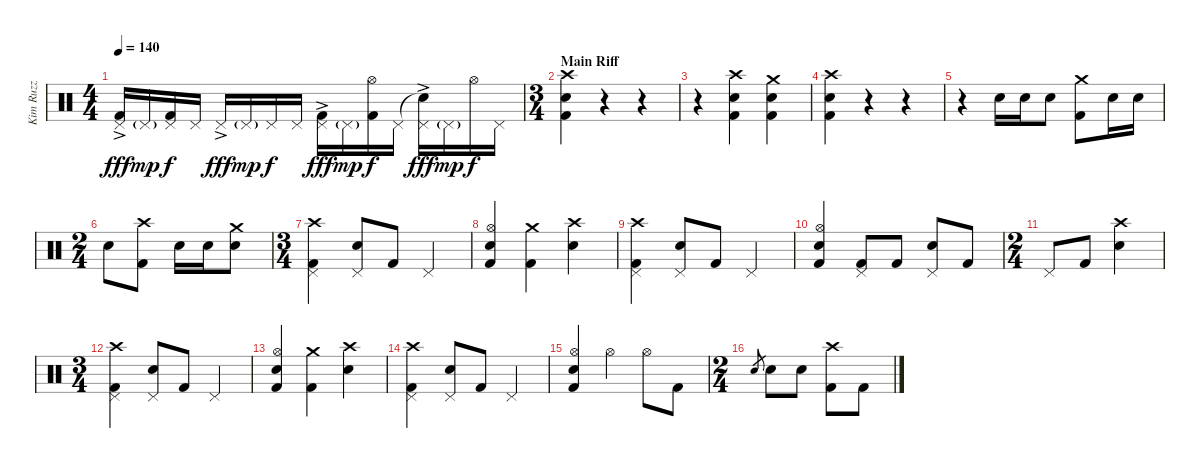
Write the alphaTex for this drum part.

\track ("Kim Ruzz" "Kim Ruzz") {instrument percussion}
\staff {score}
\articulation defaults
\ts (4 4)
\tempo 140
\clef neutral
\ks c
("Pedal Hi-Hat (hit)"{ac} "Kick (hit) 2").16{dy fff} "Pedal Hi-Hat (hit)"{g}.16{dy mp} ("Pedal Hi-Hat (hit)" "Kick (hit) 2").16{dy f} "Pedal Hi-Hat (hit)".16 "Pedal Hi-Hat (hit)"{ac}.16{dy fff} "Pedal Hi-Hat (hit)"{g}.16{dy mp} "Pedal Hi-Hat (hit)".16{dy f} "Pedal Hi-Hat (hit)".16 ("Pedal Hi-Hat (hit)"{ac} "Kick (hit) 2").16{dy fff} "Pedal Hi-Hat (hit)"{g}.16{dy mp} ("Hi-Hat (open)" "Kick (hit) 2").16{dy f} "Pedal Hi-Hat (hit)".16 ("Snare (hit)"{t} "Pedal Hi-Hat (hit)"{ac}).16{dy fff} "Pedal Hi-Hat (hit)"{g}.16{dy mp} "Hi-Hat (open)".16{dy f} "Pedal Hi-Hat (hit)".16 |
\ts (3 4)
\section ("" "Main Riff")
("Crash high (hit)" "Snare (hit) 2" "Kick (hit) 2").4 r.4 r.4 |
r.4 ("Crash high (hit)" "Snare (hit) 2" "Kick (hit) 2").4 ("Crash medium (hit)" "Snare (hit) 2" "Kick (hit) 2").4 |
("Crash high (hit)" "Snare (hit) 2" "Kick (hit) 2").4 r.4 r.4 |
r.4 "Snare (hit) 2".16 "Snare (hit) 2".16 "Snare (hit) 2".8 ("Crash medium (hit)" "Kick (hit) 2").8 "Snare (hit) 2".16 "Snare (hit) 2".16 |
\ts (2 4)
"Snare (hit) 2".8 ("Crash high (hit)" "Kick (hit) 2").8 "Snare (hit) 2".16 "Snare (hit) 2".16 ("Crash medium (hit)" "Snare (hit) 2").8 |
\ts (3 4)
("Crash high (hit)" "Pedal Hi-Hat (hit)" "Kick (hit) 2").4 ("Pedal Hi-Hat (hit)" "Snare (hit) 2").8 "Kick (hit) 2".8 "Pedal Hi-Hat (hit)".4 |
("Hi-Hat (open)" "Snare (hit) 2" "Kick (hit) 2").4 ("Crash medium (hit)" "Kick (hit) 2").4 ("Crash high (hit)" "Snare (hit) 2").4 |
("Crash high (hit)" "Pedal Hi-Hat (hit)" "Kick (hit) 2").4 ("Pedal Hi-Hat (hit)" "Snare (hit) 2").8 "Kick (hit) 2".8 "Pedal Hi-Hat (hit)".4 |
("Hi-Hat (open)" "Snare (hit) 2" "Kick (hit) 2").4 ("Pedal Hi-Hat (hit)" "Kick (hit) 2").8 "Kick (hit) 2".8 ("Pedal Hi-Hat (hit)" "Snare (hit) 2").8 "Kick (hit) 2".8 |
\ts (2 4)
"Pedal Hi-Hat (hit)".8 "Kick (hit) 2".8 ("Crash high (hit)" "Snare (hit) 2").4 |
\ts (3 4)
("Crash high (hit)" "Pedal Hi-Hat (hit)" "Kick (hit) 2").4 ("Pedal Hi-Hat (hit)" "Snare (hit) 2").8 "Kick (hit) 2".8 "Pedal Hi-Hat (hit)".4 |
("Hi-Hat (open)" "Snare (hit) 2" "Kick (hit) 2").4 ("Crash medium (hit)" "Kick (hit) 2").4 ("Crash high (hit)" "Snare (hit) 2").4 |
("Crash high (hit)" "Pedal Hi-Hat (hit)" "Kick (hit) 2").4 ("Pedal Hi-Hat (hit)" "Snare (hit) 2").8 "Kick (hit) 2".8 "Pedal Hi-Hat (hit)".4 |
("Hi-Hat (open)" "Snare (hit) 2" "Kick (hit) 2").4 "Hi-Hat (open)".4 "Hi-Hat (open)".8 "Kick (hit) 2".8 |
\ts (2 4)
"Snare (hit) 2".8{gr} "Snare (hit) 2".8 "Snare (hit) 2".8 ("Crash high (hit)" "Kick (hit) 2").8 "Kick (hit) 2".8
